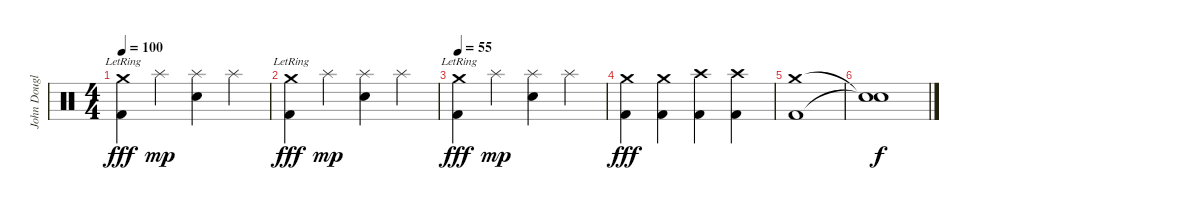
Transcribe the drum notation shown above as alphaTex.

\track ("John Douglas (Drums)" "John Dougl") {instrument percussion}
\staff {score}
\articulation defaults
\ts (4 4)
\tempo 100
\clef neutral
\ks c
("Crash medium (hit)"{lr} "Kick (hit) 2").4{dy fff} "Splash (hit)".4{dy mp} ("Splash (hit)" "Snare (hit) 2").4 "Splash (hit)".4 |
("Crash medium (hit)"{lr} "Kick (hit) 2").4{dy fff} "Splash (hit)".4{dy mp} ("Splash (hit)" "Snare (hit) 2").4 "Splash (hit)".4 |
\tempo 55
("Crash medium (hit)"{lr} "Kick (hit) 2").4{dy fff} "Splash (hit)".4{dy mp} ("Splash (hit)" "Snare (hit) 2").4 "Splash (hit)".4 |
("Crash medium (hit)" "Kick (hit) 2").4{dy fff} ("Crash medium (hit)" "Kick (hit) 2").4 ("Crash high (hit)" "Kick (hit) 2").4 ("Crash high (hit)" "Kick (hit) 2").4 |
("Crash medium (hit)" "Kick (hit) 2").1 |
("Snare (hit)"{t} "Snare (hit)"{t}).1{dy f}
